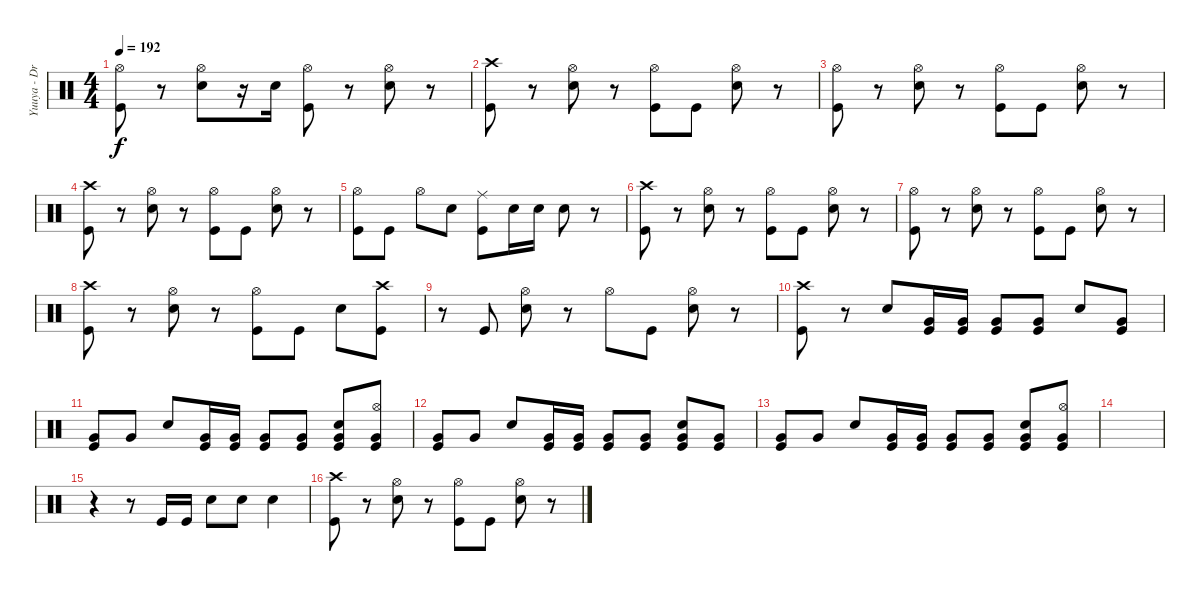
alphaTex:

\track ("Yuuya - Drums" "Yuuya - Dr") {instrument percussion}
\staff {score}
\articulation defaults
\ts (4 4)
\tempo 192
\clef neutral
\ks c
("Kick (hit)" "Hi-Hat (open)").8{dy f} r.8 ("Electric Snare (hit)" "Hi-Hat (open)").8 r.16 "Electric Snare (hit)".16 ("Kick (hit)" "Hi-Hat (open)").8 r.8 ("Electric Snare (hit)" "Hi-Hat (open)").8 r.8 |
("Kick (hit)" "Crash high (hit)").8 r.8 ("Electric Snare (hit)" "Hi-Hat (open)").8 r.8 ("Kick (hit)" "Hi-Hat (open)").8 "Kick (hit)".8 ("Electric Snare (hit)" "Hi-Hat (open)").8 r.8 |
("Kick (hit)" "Hi-Hat (open)").8 r.8 ("Electric Snare (hit)" "Hi-Hat (open)").8 r.8 ("Kick (hit)" "Hi-Hat (open)").8 "Kick (hit)".8 ("Electric Snare (hit)" "Hi-Hat (open)").8 r.8 |
("Kick (hit)" "Crash high (hit)").8 r.8 ("Electric Snare (hit)" "Hi-Hat (open)").8 r.8 ("Kick (hit)" "Hi-Hat (open)").8 "Kick (hit)".8 ("Electric Snare (hit)" "Hi-Hat (open)").8 r.8 |
("Kick (hit)" "Hi-Hat (open)").8 "Kick (hit)".8 "Hi-Hat (open)".8 "Electric Snare (hit)".8 ("Kick (hit)" "Ride (middle)").8 "Electric Snare (hit)".16 "Electric Snare (hit)".16 "Electric Snare (hit)".8 r.8 |
("Kick (hit)" "Crash high (hit)").8 r.8 ("Electric Snare (hit)" "Hi-Hat (open)").8 r.8 ("Kick (hit)" "Hi-Hat (open)").8 "Kick (hit)".8 ("Electric Snare (hit)" "Hi-Hat (open)").8 r.8 |
("Kick (hit)" "Hi-Hat (open)").8 r.8 ("Electric Snare (hit)" "Hi-Hat (open)").8 r.8 ("Kick (hit)" "Hi-Hat (open)").8 "Kick (hit)".8 ("Electric Snare (hit)" "Hi-Hat (open)").8 r.8 |
("Kick (hit)" "Crash high (hit)").8 r.8 ("Electric Snare (hit)" "Hi-Hat (open)").8 r.8 ("Kick (hit)" "Hi-Hat (open)").8 "Kick (hit)".8 "Electric Snare (hit)".8 ("Kick (hit)" "Crash high (hit)").8 |
r.8 "Kick (hit)".8 ("Electric Snare (hit)" "Hi-Hat (open)").8 r.8 "Hi-Hat (open)".8 "Kick (hit)".8 ("Electric Snare (hit)" "Hi-Hat (open)").8 r.8 |
("Kick (hit)" "Crash high (hit)").8 r.8 "Electric Snare (hit)".8 ("Kick (hit)" "Very Low Tom (hit)").16 ("Kick (hit)" "Very Low Tom (hit)").16 ("Kick (hit)" "Very Low Tom (hit)").8 ("Kick (hit)" "Very Low Tom (hit)").8 "Electric Snare (hit)".8 ("Kick (hit)" "Very Low Tom (hit)").8 |
("Kick (hit)" "Very Low Tom (hit)").8 "Very Low Tom (hit)".8 "Electric Snare (hit)".8 ("Kick (hit)" "Very Low Tom (hit)").16 ("Kick (hit)" "Very Low Tom (hit)").16 ("Kick (hit)" "Very Low Tom (hit)").8 ("Kick (hit)" "Very Low Tom (hit)").8 ("Kick (hit)" "Very Low Tom (hit)" "Electric Snare (hit)").8 ("Kick (hit)" "Very Low Tom (hit)" "Hi-Hat (open)").8 |
("Kick (hit)" "Very Low Tom (hit)").8 "Very Low Tom (hit)".8 "Electric Snare (hit)".8 ("Kick (hit)" "Very Low Tom (hit)").16 ("Kick (hit)" "Very Low Tom (hit)").16 ("Kick (hit)" "Very Low Tom (hit)").8 ("Kick (hit)" "Very Low Tom (hit)").8 ("Kick (hit)" "Very Low Tom (hit)" "Electric Snare (hit)").8 ("Kick (hit)" "Very Low Tom (hit)").8 |
("Kick (hit)" "Very Low Tom (hit)").8 "Very Low Tom (hit)".8 "Electric Snare (hit)".8 ("Kick (hit)" "Very Low Tom (hit)").16 ("Kick (hit)" "Very Low Tom (hit)").16 ("Kick (hit)" "Very Low Tom (hit)").8 ("Kick (hit)" "Very Low Tom (hit)").8 ("Kick (hit)" "Very Low Tom (hit)" "Electric Snare (hit)").8 ("Kick (hit)" "Very Low Tom (hit)" "Hi-Hat (open)").8 |
|
r.4 r.8 "Kick (hit)".16 "Kick (hit)".16 "Electric Snare (hit)".8 "Electric Snare (hit)".8 "Electric Snare (hit)".4 |
("Kick (hit)" "Crash high (hit)").8 r.8 ("Electric Snare (hit)" "Hi-Hat (open)").8 r.8 ("Kick (hit)" "Hi-Hat (open)").8 "Kick (hit)".8 ("Electric Snare (hit)" "Hi-Hat (open)").8 r.8
